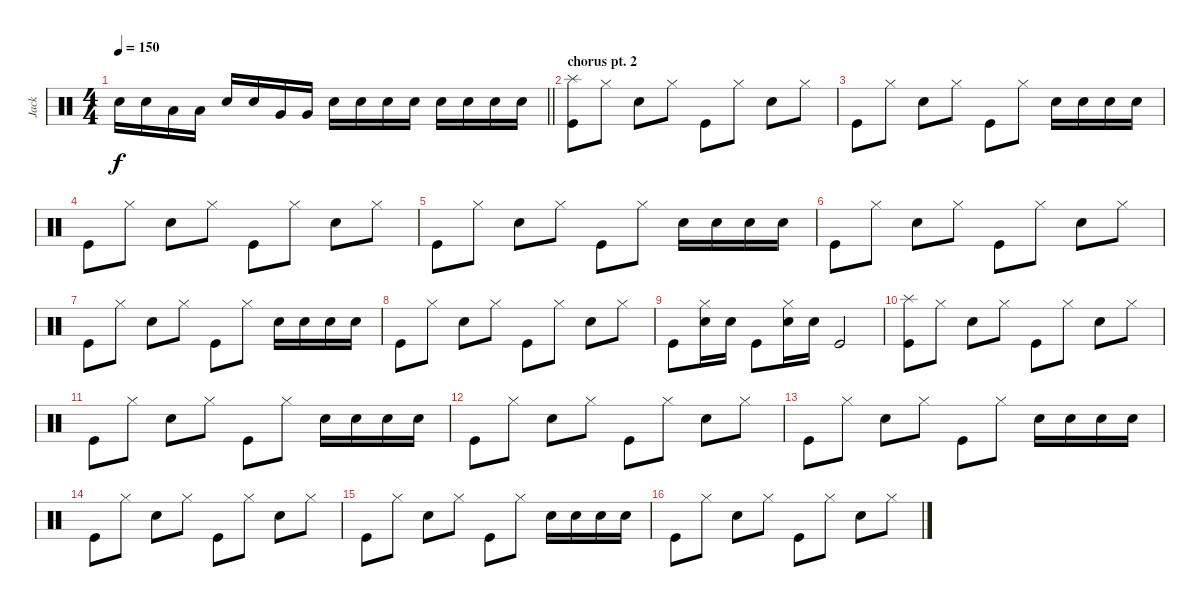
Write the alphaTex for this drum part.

\track ("Jack" "Jack") {instrument percussion}
\staff {score}
\articulation defaults
\ts (4 4)
\tempo 150
\clef neutral
\barLineRight lightlight
\ks c "Electric Snare (hit)".16{dy f} "Electric Snare (hit)".16 "Low Tom (hit)".16 "Low Tom (hit)".16 "Electric Snare (hit)".16 "Electric Snare (hit)".16 "Very Low Tom (hit)".16 "Very Low Tom (hit)".16 "Electric Snare (hit)".16 "Electric Snare (hit)".16 "Electric Snare (hit)".16 "Electric Snare (hit)".16 "Electric Snare (hit)".16 "Electric Snare (hit)".16 "Electric Snare (hit)".16 "Electric Snare (hit)".16
|
\section ("" "chorus pt. 2")
("Splash (hit)" "Kick (hit)").8 "Hi-Hat (closed)".8 "Electric Snare (hit)".8 "Hi-Hat (closed)".8 "Kick (hit)".8 "Hi-Hat (closed)".8 "Electric Snare (hit)".8 "Hi-Hat (closed)".8 |
"Kick (hit)".8 "Hi-Hat (closed)".8 "Electric Snare (hit)".8 "Hi-Hat (closed)".8 "Kick (hit)".8 "Hi-Hat (closed)".8 "Electric Snare (hit)".16 "Electric Snare (hit)".16 "Electric Snare (hit)".16 "Electric Snare (hit)".16 |
"Kick (hit)".8 "Hi-Hat (closed)".8 "Electric Snare (hit)".8 "Hi-Hat (closed)".8 "Kick (hit)".8 "Hi-Hat (closed)".8 "Electric Snare (hit)".8 "Hi-Hat (closed)".8 |
"Kick (hit)".8 "Hi-Hat (closed)".8 "Electric Snare (hit)".8 "Hi-Hat (closed)".8 "Kick (hit)".8 "Hi-Hat (closed)".8 "Electric Snare (hit)".16 "Electric Snare (hit)".16 "Electric Snare (hit)".16 "Electric Snare (hit)".16 |
"Kick (hit)".8 "Hi-Hat (closed)".8 "Electric Snare (hit)".8 "Hi-Hat (closed)".8 "Kick (hit)".8 "Hi-Hat (closed)".8 "Electric Snare (hit)".8 "Hi-Hat (closed)".8 |
"Kick (hit)".8 "Hi-Hat (closed)".8 "Electric Snare (hit)".8 "Hi-Hat (closed)".8 "Kick (hit)".8 "Hi-Hat (closed)".8 "Electric Snare (hit)".16 "Electric Snare (hit)".16 "Electric Snare (hit)".16 "Electric Snare (hit)".16 |
"Kick (hit)".8 "Hi-Hat (closed)".8 "Electric Snare (hit)".8 "Hi-Hat (closed)".8 "Kick (hit)".8 "Hi-Hat (closed)".8 "Electric Snare (hit)".8 "Hi-Hat (closed)".8 |
"Kick (hit)".8 ("Hi-Hat (closed)" "Electric Snare (hit)").16 "Electric Snare (hit)".16 "Kick (hit)".8 ("Hi-Hat (closed)" "Electric Snare (hit)").16 "Electric Snare (hit)".16 "Kick (hit)".2 |
("Splash (hit)" "Kick (hit)").8 "Hi-Hat (closed)".8 "Electric Snare (hit)".8 "Hi-Hat (closed)".8 "Kick (hit)".8 "Hi-Hat (closed)".8 "Electric Snare (hit)".8 "Hi-Hat (closed)".8 |
"Kick (hit)".8 "Hi-Hat (closed)".8 "Electric Snare (hit)".8 "Hi-Hat (closed)".8 "Kick (hit)".8 "Hi-Hat (closed)".8 "Electric Snare (hit)".16 "Electric Snare (hit)".16 "Electric Snare (hit)".16 "Electric Snare (hit)".16 |
"Kick (hit)".8 "Hi-Hat (closed)".8 "Electric Snare (hit)".8 "Hi-Hat (closed)".8 "Kick (hit)".8 "Hi-Hat (closed)".8 "Electric Snare (hit)".8 "Hi-Hat (closed)".8 |
"Kick (hit)".8 "Hi-Hat (closed)".8 "Electric Snare (hit)".8 "Hi-Hat (closed)".8 "Kick (hit)".8 "Hi-Hat (closed)".8 "Electric Snare (hit)".16 "Electric Snare (hit)".16 "Electric Snare (hit)".16 "Electric Snare (hit)".16 |
"Kick (hit)".8 "Hi-Hat (closed)".8 "Electric Snare (hit)".8 "Hi-Hat (closed)".8 "Kick (hit)".8 "Hi-Hat (closed)".8 "Electric Snare (hit)".8 "Hi-Hat (closed)".8 |
"Kick (hit)".8 "Hi-Hat (closed)".8 "Electric Snare (hit)".8 "Hi-Hat (closed)".8 "Kick (hit)".8 "Hi-Hat (closed)".8 "Electric Snare (hit)".16 "Electric Snare (hit)".16 "Electric Snare (hit)".16 "Electric Snare (hit)".16 |
"Kick (hit)".8 "Hi-Hat (closed)".8 "Electric Snare (hit)".8 "Hi-Hat (closed)".8 "Kick (hit)".8 "Hi-Hat (closed)".8 "Electric Snare (hit)".8 "Hi-Hat (closed)".8
